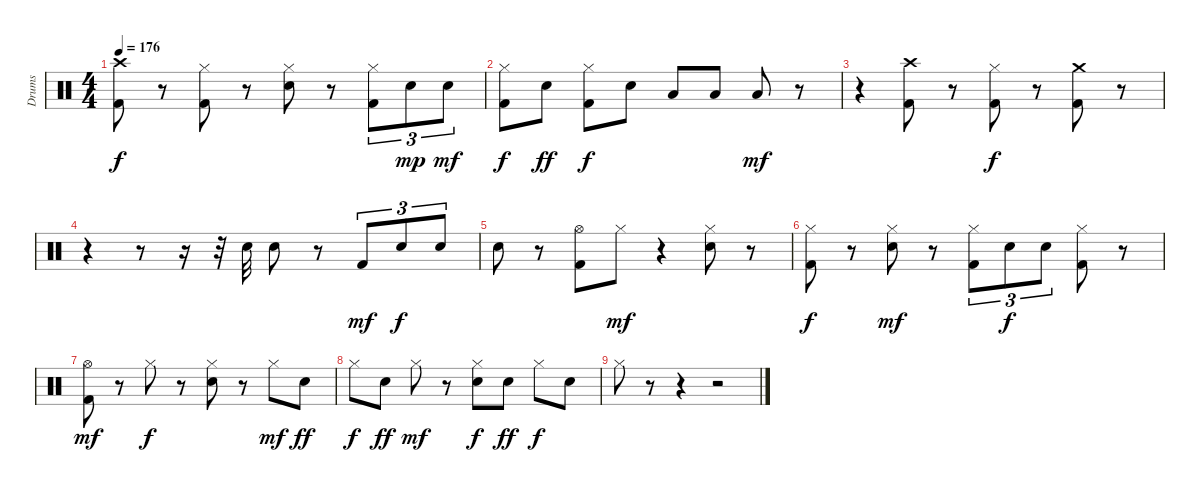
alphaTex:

\track ("Drums" "Drums") {instrument percussion}
\staff {score}
\articulation defaults
\ts (4 4)
\tempo 176
\clef neutral
\ks c
("Crash high (hit)" "Kick (hit) 2").8{dy f} r.8 ("Hi-Hat (closed)" "Kick (hit) 2").8 r.8 ("Hi-Hat (closed)" "Snare (hit) 2").8 r.8 ("Hi-Hat (closed)" "Kick (hit) 2").8{tu (3 2)} "Snare (hit) 2".8{tu (3 2) dy mp} "Snare (hit) 2".8{tu (3 2) dy mf} |
("Hi-Hat (closed)" "Kick (hit) 2").8{dy f} "Snare (hit) 2".8{dy ff} ("Hi-Hat (closed)" "Kick (hit) 2").8{dy f balance 10} "Snare (hit) 2".8{balance 13} "Low Tom (hit)".8{balance 16} "Low Tom (hit)".8 "Low Floor Tom (hit)".8{dy mf} r.8 |
r.4 ("Crash high (hit)" "Kick (hit) 2").8 r.8 ("Hi-Hat (closed)" "Kick (hit) 2").8{dy f} r.8 ("Crash medium (hit)" "Kick (hit) 2").8 r.8 |
r.4 r.8 r.16 r.32 "Snare (hit) 2".32 "Snare (hit) 2".8 r.8 "Kick (hit) 2".8{tu (3 2) dy mf} "Snare (hit) 2".8{tu (3 2) dy f} "Snare (hit) 2".8{tu (3 2)} |
"Snare (hit) 2".8 r.8 ("Hi-Hat (open)" "Kick (hit) 2").8 "Hi-Hat (closed)".8{dy mf} r.4 ("Hi-Hat (closed)" "Snare (hit) 2").8 r.8 |
("Hi-Hat (closed)" "Kick (hit) 2").8{dy f} r.8 ("Hi-Hat (closed)" "Snare (hit) 2").8{dy mf} r.8 ("Hi-Hat (closed)" "Kick (hit) 2").8{tu (3 2)} "Snare (hit) 2".8{tu (3 2) dy f} "Snare (hit) 2".8{tu (3 2)} ("Hi-Hat (closed)" "Kick (hit) 2").8 r.8 |
("Hi-Hat (open)" "Kick (hit) 2").8{dy mf} r.8 "Hi-Hat (closed)".8{dy f} r.8 ("Hi-Hat (closed)" "Snare (hit) 2").8 r.8 "Hi-Hat (closed)".8{dy mf} "Snare (hit) 2".8{dy ff volume 14} |
"Hi-Hat (closed)".8{dy f volume 13} "Snare (hit) 2".8{dy ff volume 12} "Hi-Hat (closed)".8{dy mf volume 11} r.8 ("Hi-Hat (closed)" "Snare (hit) 2").8{dy f volume 8} "Snare (hit) 2".8{dy ff volume 7} "Hi-Hat (closed)".8{dy f volume 4} "Snare (hit) 2".8{volume 2} |
"Hi-Hat (closed)".8{volume 0} r.8 r.4 r.2
